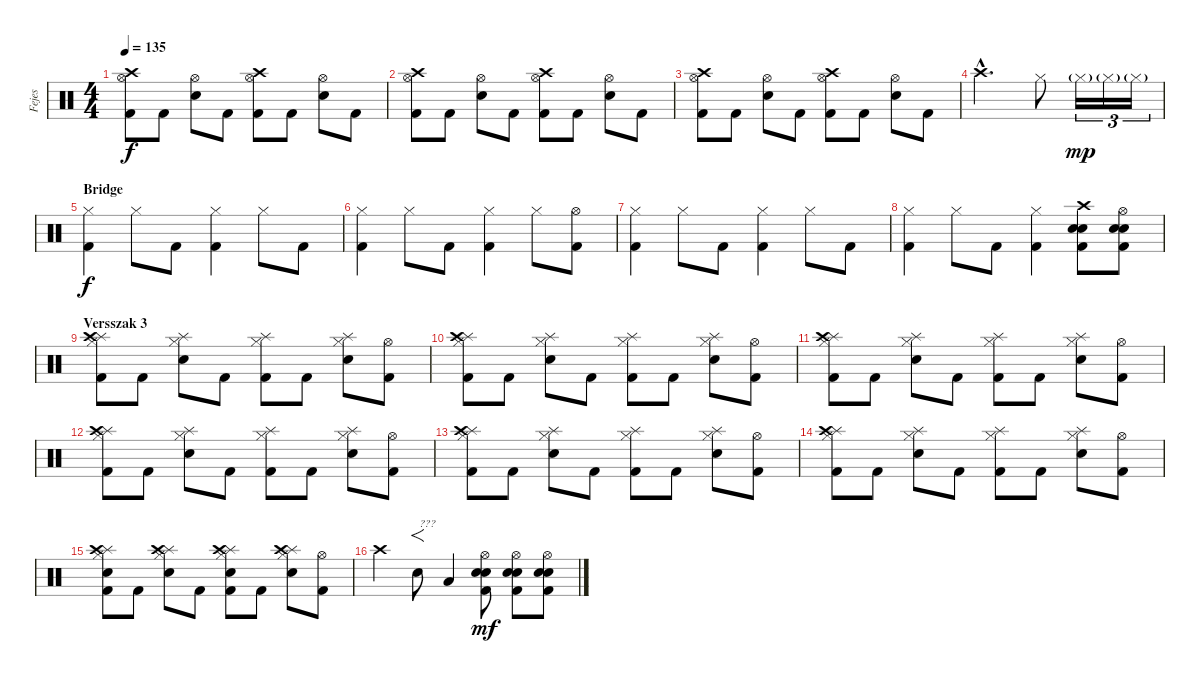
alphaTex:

\track ("Fejes" "Fejes") {instrument percussion}
\staff {score}
\articulation defaults
\ts (4 4)
\tempo 135
\clef neutral
\ks c
("Crash high (hit)" "Hi-Hat (open)" "Kick (hit) 2").8{dy f} "Kick (hit) 2".8 ("Hi-Hat (open)" "Electric Snare (hit)").8 "Kick (hit) 2".8 ("Crash high (hit)" "Hi-Hat (open)" "Kick (hit) 2").8 "Kick (hit) 2".8 ("Hi-Hat (open)" "Electric Snare (hit)").8 "Kick (hit) 2".8 |
("Crash high (hit)" "Hi-Hat (open)" "Kick (hit) 2").8 "Kick (hit) 2".8 ("Hi-Hat (open)" "Electric Snare (hit)").8 "Kick (hit) 2".8 ("Crash high (hit)" "Hi-Hat (open)" "Kick (hit) 2").8 "Kick (hit) 2".8 ("Hi-Hat (open)" "Electric Snare (hit)").8 "Kick (hit) 2".8 |
("Crash high (hit)" "Hi-Hat (open)" "Kick (hit) 2").8 "Kick (hit) 2".8 ("Hi-Hat (open)" "Electric Snare (hit)").8 "Kick (hit) 2".8 ("Crash high (hit)" "Hi-Hat (open)" "Kick (hit) 2").8 "Kick (hit) 2".8 ("Hi-Hat (open)" "Electric Snare (hit)").8 "Kick (hit) 2".8 |
"Crash high (hit)"{hac}.2{d} "Hi-Hat (closed)".8 "Hi-Hat (closed)"{g}.16{tu (3 2) dy mp} "Hi-Hat (closed)"{g}.16{tu (3 2)} "Hi-Hat (closed)"{g}.16{tu (3 2)} |
\section ("" "Bridge")
("Hi-Hat (closed)" "Kick (hit) 2").4{dy f} "Hi-Hat (closed)".8 "Kick (hit) 2".8 ("Hi-Hat (closed)" "Kick (hit) 2").4 "Hi-Hat (closed)".8 "Kick (hit) 2".8 |
("Hi-Hat (closed)" "Kick (hit) 2").4 "Hi-Hat (closed)".8 "Kick (hit) 2".8 ("Hi-Hat (closed)" "Kick (hit) 2").4 "Hi-Hat (closed)".8 ("Hi-Hat (open)" "Kick (hit) 2").8 |
("Hi-Hat (closed)" "Kick (hit) 2").4 "Hi-Hat (closed)".8 "Kick (hit) 2".8 ("Hi-Hat (closed)" "Kick (hit) 2").4 "Hi-Hat (closed)".8 "Kick (hit) 2".8 |
("Hi-Hat (closed)" "Kick (hit) 2").4 "Hi-Hat (closed)".8 "Kick (hit) 2".8 ("Hi-Hat (closed)" "Kick (hit) 2").4 ("Crash high (hit)" "Electric Snare (hit)" "Snare (hit) 2" "Kick (hit) 2").8 ("Hi-Hat (open)" "Electric Snare (hit)" "Snare (hit) 2" "Kick (hit) 2").8 |
\section ("" "Versszak 3")
("Splash (hit)" "Hi-Hat (closed)" "Crash high (hit)" "Kick (hit) 2").8 "Kick (hit) 2".8 ("Splash (hit)" "Hi-Hat (closed)" "Electric Snare (hit)").8 "Kick (hit) 2".8 ("Splash (hit)" "Hi-Hat (closed)" "Kick (hit) 2").8 "Kick (hit) 2".8 ("Splash (hit)" "Hi-Hat (closed)" "Electric Snare (hit)").8 ("Hi-Hat (open)" "Kick (hit) 2").8 |
("Splash (hit)" "Hi-Hat (closed)" "Crash high (hit)" "Kick (hit) 2").8 "Kick (hit) 2".8 ("Splash (hit)" "Hi-Hat (closed)" "Electric Snare (hit)").8 "Kick (hit) 2".8 ("Splash (hit)" "Hi-Hat (closed)" "Kick (hit) 2").8 "Kick (hit) 2".8 ("Splash (hit)" "Hi-Hat (closed)" "Electric Snare (hit)").8 ("Hi-Hat (open)" "Kick (hit) 2").8 |
("Splash (hit)" "Hi-Hat (closed)" "Crash high (hit)" "Kick (hit) 2").8 "Kick (hit) 2".8 ("Splash (hit)" "Hi-Hat (closed)" "Electric Snare (hit)").8 "Kick (hit) 2".8 ("Splash (hit)" "Hi-Hat (closed)" "Kick (hit) 2").8 "Kick (hit) 2".8 ("Splash (hit)" "Hi-Hat (closed)" "Electric Snare (hit)").8 ("Hi-Hat (open)" "Kick (hit) 2").8 |
("Splash (hit)" "Hi-Hat (closed)" "Crash high (hit)" "Kick (hit) 2").8 "Kick (hit) 2".8 ("Splash (hit)" "Hi-Hat (closed)" "Electric Snare (hit)").8 "Kick (hit) 2".8 ("Splash (hit)" "Hi-Hat (closed)" "Kick (hit) 2").8 "Kick (hit) 2".8 ("Splash (hit)" "Hi-Hat (closed)" "Electric Snare (hit)").8 ("Hi-Hat (open)" "Kick (hit) 2").8 |
("Splash (hit)" "Hi-Hat (closed)" "Crash high (hit)" "Kick (hit) 2").8 "Kick (hit) 2".8 ("Splash (hit)" "Hi-Hat (closed)" "Electric Snare (hit)").8 "Kick (hit) 2".8 ("Splash (hit)" "Hi-Hat (closed)" "Kick (hit) 2").8 "Kick (hit) 2".8 ("Splash (hit)" "Hi-Hat (closed)" "Electric Snare (hit)").8 ("Hi-Hat (open)" "Kick (hit) 2").8 |
("Splash (hit)" "Hi-Hat (closed)" "Crash high (hit)" "Kick (hit) 2").8 "Kick (hit) 2".8 ("Splash (hit)" "Hi-Hat (closed)" "Electric Snare (hit)").8 "Kick (hit) 2".8 ("Splash (hit)" "Hi-Hat (closed)" "Kick (hit) 2").8 "Kick (hit) 2".8 ("Splash (hit)" "Hi-Hat (closed)" "Electric Snare (hit)").8 ("Hi-Hat (open)" "Kick (hit) 2").8 |
("Splash (hit)" "Hi-Hat (closed)" "Snare (hit) 2" "Crash high (hit)" "Kick (hit) 2").8 "Kick (hit) 2".8 ("Splash (hit)" "Hi-Hat (closed)" "Snare (hit) 2" "Crash high (hit)").8 "Kick (hit) 2".8 ("Splash (hit)" "Hi-Hat (closed)" "Snare (hit) 2" "Crash high (hit)" "Kick (hit) 2").8 "Kick (hit) 2".8 ("Splash (hit)" "Hi-Hat (closed)" "Snare (hit) 2" "Crash high (hit)").8 ("Hi-Hat (open)" "Kick (hit) 2").8 |
"Crash high (hit)".4{txt "             ???"} "Electric Snare (hit)"{tr (40 16)}.8{f} "Low Tom (hit)"{tr (45 16)}.4 ("Hi-Hat (open)" "Electric Snare (hit)" "Snare (hit) 2" "Kick (hit) 2").8{dy mf} ("Hi-Hat (open)" "Electric Snare (hit)" "Snare (hit) 2" "Kick (hit) 2").8 ("Hi-Hat (open)" "Electric Snare (hit)" "Snare (hit) 2" "Kick (hit) 2").8
